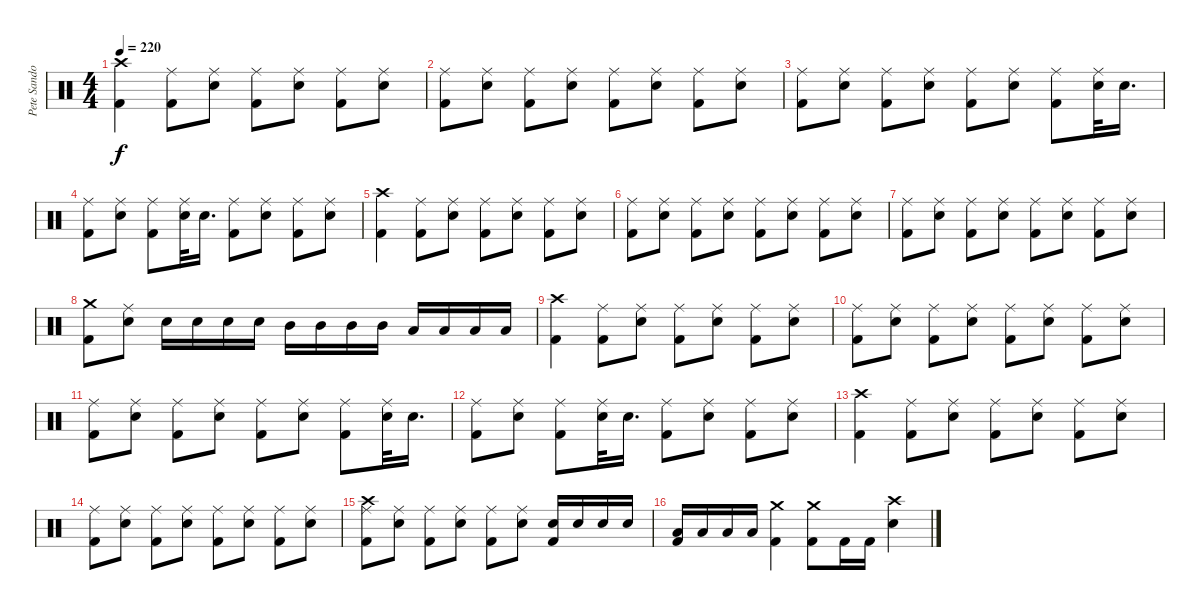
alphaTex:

\track ("Pete Sandoval" "Pete Sando") {instrument percussion}
\staff {score}
\articulation defaults
\ts (4 4)
\tempo 220
\clef neutral
\ks c
("Crash high (hit)" "Kick (hit) 2").4{dy f} ("Kick (hit) 2" "Ride (middle)").8 ("Electric Snare (hit)" "Ride (middle)").8 ("Kick (hit) 2" "Ride (middle)").8 ("Electric Snare (hit)" "Ride (middle)").8 ("Kick (hit) 2" "Ride (middle)").8 ("Electric Snare (hit)" "Ride (middle)").8 |
("Kick (hit) 2" "Ride (middle)").8 ("Electric Snare (hit)" "Ride (middle)").8 ("Kick (hit) 2" "Ride (middle)").8 ("Electric Snare (hit)" "Ride (middle)").8 ("Kick (hit) 2" "Ride (middle)").8 ("Electric Snare (hit)" "Ride (middle)").8 ("Kick (hit) 2" "Ride (middle)").8 ("Electric Snare (hit)" "Ride (middle)").8 |
("Kick (hit) 2" "Ride (middle)").8 ("Electric Snare (hit)" "Ride (middle)").8 ("Kick (hit) 2" "Ride (middle)").8 ("Electric Snare (hit)" "Ride (middle)").8 ("Kick (hit) 2" "Ride (middle)").8 ("Electric Snare (hit)" "Ride (middle)").8 ("Kick (hit) 2" "Ride (middle)").8 ("Electric Snare (hit)" "Ride (middle)").32 "Electric Snare (hit)".16{d} |
("Kick (hit) 2" "Ride (middle)").8 ("Electric Snare (hit)" "Ride (middle)").8 ("Kick (hit) 2" "Ride (middle)").8 ("Electric Snare (hit)" "Ride (middle)").32 "Electric Snare (hit)".16{d} ("Kick (hit) 2" "Ride (middle)").8 ("Electric Snare (hit)" "Ride (middle)").8 ("Kick (hit) 2" "Ride (middle)").8 ("Electric Snare (hit)" "Ride (middle)").8 |
("Crash high (hit)" "Kick (hit) 2").4 ("Kick (hit) 2" "Ride (middle)").8 ("Electric Snare (hit)" "Ride (middle)").8 ("Kick (hit) 2" "Ride (middle)").8 ("Electric Snare (hit)" "Ride (middle)").8 ("Kick (hit) 2" "Ride (middle)").8 ("Electric Snare (hit)" "Ride (middle)").8 |
("Kick (hit) 2" "Ride (middle)").8 ("Electric Snare (hit)" "Ride (middle)").8 ("Kick (hit) 2" "Ride (middle)").8 ("Electric Snare (hit)" "Ride (middle)").8 ("Kick (hit) 2" "Ride (middle)").8 ("Electric Snare (hit)" "Ride (middle)").8 ("Kick (hit) 2" "Ride (middle)").8 ("Electric Snare (hit)" "Ride (middle)").8 |
("Kick (hit) 2" "Ride (middle)").8 ("Electric Snare (hit)" "Ride (middle)").8 ("Kick (hit) 2" "Ride (middle)").8 ("Electric Snare (hit)" "Ride (middle)").8 ("Kick (hit) 2" "Ride (middle)").8 ("Electric Snare (hit)" "Ride (middle)").8 ("Kick (hit) 2" "Ride (middle)").8 ("Electric Snare (hit)" "Ride (middle)").8 |
("Crash medium (hit)" "Kick (hit) 2").8 ("Electric Snare (hit)" "Ride (middle)").8 "Electric Snare (hit)".16 "Electric Snare (hit)".16 "Electric Snare (hit)".16 "Electric Snare (hit)".16 "Mid Tom (hit)".16 "Mid Tom (hit)".16 "Mid Tom (hit)".16 "Mid Tom (hit)".16 "Low Tom (hit)".16 "Low Tom (hit)".16 "Low Tom (hit)".16 "Low Tom (hit)".16 |
("Crash high (hit)" "Kick (hit) 2").4 ("Kick (hit) 2" "Ride (middle)").8 ("Electric Snare (hit)" "Ride (middle)").8 ("Kick (hit) 2" "Ride (middle)").8 ("Electric Snare (hit)" "Ride (middle)").8 ("Kick (hit) 2" "Ride (middle)").8 ("Electric Snare (hit)" "Ride (middle)").8 |
("Kick (hit) 2" "Ride (middle)").8 ("Electric Snare (hit)" "Ride (middle)").8 ("Kick (hit) 2" "Ride (middle)").8 ("Electric Snare (hit)" "Ride (middle)").8 ("Kick (hit) 2" "Ride (middle)").8 ("Electric Snare (hit)" "Ride (middle)").8 ("Kick (hit) 2" "Ride (middle)").8 ("Electric Snare (hit)" "Ride (middle)").8 |
("Kick (hit) 2" "Ride (middle)").8 ("Electric Snare (hit)" "Ride (middle)").8 ("Kick (hit) 2" "Ride (middle)").8 ("Electric Snare (hit)" "Ride (middle)").8 ("Kick (hit) 2" "Ride (middle)").8 ("Electric Snare (hit)" "Ride (middle)").8 ("Kick (hit) 2" "Ride (middle)").8 ("Electric Snare (hit)" "Ride (middle)").32 "Electric Snare (hit)".16{d} |
("Kick (hit) 2" "Ride (middle)").8 ("Electric Snare (hit)" "Ride (middle)").8 ("Kick (hit) 2" "Ride (middle)").8 ("Electric Snare (hit)" "Ride (middle)").32 "Electric Snare (hit)".16{d} ("Kick (hit) 2" "Ride (middle)").8 ("Electric Snare (hit)" "Ride (middle)").8 ("Kick (hit) 2" "Ride (middle)").8 ("Electric Snare (hit)" "Ride (middle)").8 |
("Crash high (hit)" "Kick (hit) 2").4 ("Kick (hit) 2" "Ride (middle)").8 ("Electric Snare (hit)" "Ride (middle)").8 ("Kick (hit) 2" "Ride (middle)").8 ("Electric Snare (hit)" "Ride (middle)").8 ("Kick (hit) 2" "Ride (middle)").8 ("Electric Snare (hit)" "Ride (middle)").8 |
("Kick (hit) 2" "Ride (middle)").8 ("Electric Snare (hit)" "Ride (middle)").8 ("Kick (hit) 2" "Ride (middle)").8 ("Electric Snare (hit)" "Ride (middle)").8 ("Kick (hit) 2" "Ride (middle)").8 ("Electric Snare (hit)" "Ride (middle)").8 ("Kick (hit) 2" "Ride (middle)").8 ("Electric Snare (hit)" "Ride (middle)").8 |
("Crash high (hit)" "Kick (hit) 2" "Ride (middle)").8 ("Electric Snare (hit)" "Ride (middle)").8 ("Kick (hit) 2" "Ride (middle)").8 ("Electric Snare (hit)" "Ride (middle)").8 ("Kick (hit) 2" "Ride (middle)").8 ("Electric Snare (hit)" "Ride (middle)").8 ("Kick (hit) 2" "Electric Snare (hit)").16 "Electric Snare (hit)".16 "Electric Snare (hit)".16 "Electric Snare (hit)".16 |
("Kick (hit) 2" "Low Tom (hit)").16 "Low Tom (hit)".16 "Low Tom (hit)".16 "Low Tom (hit)".16 ("Crash medium (hit)" "Kick (hit) 2").4 ("Crash medium (hit)" "Kick (hit) 2").8 "Kick (hit) 2".16 "Kick (hit) 2".16 ("Crash high (hit)" "Electric Snare (hit)").4
